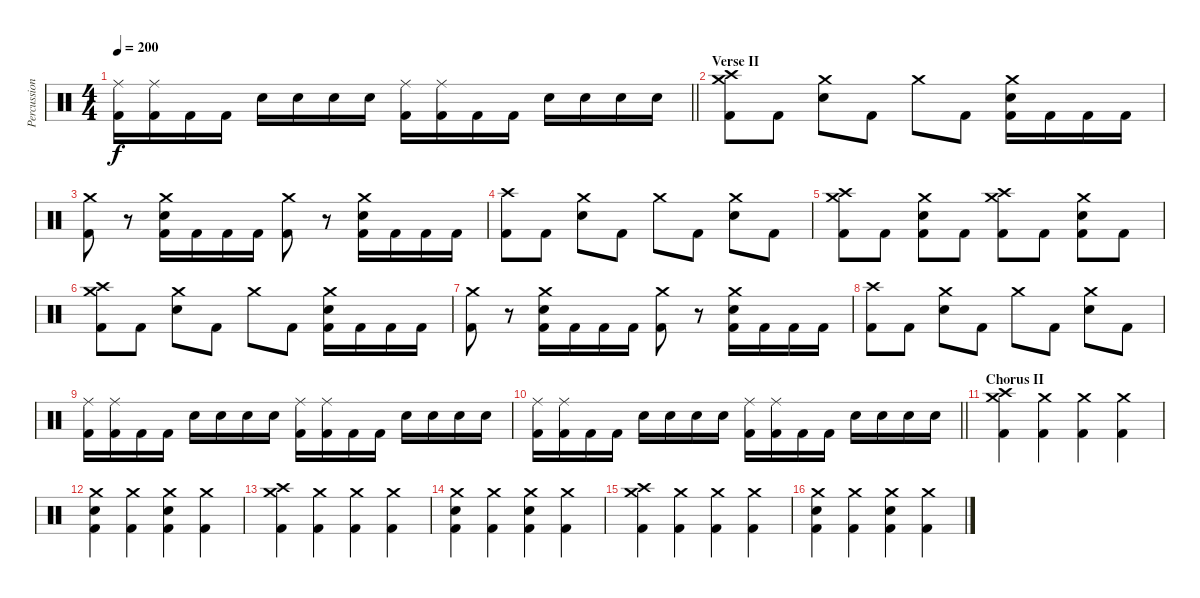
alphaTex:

\track ("Percussion" "Percussion") {instrument percussion}
\staff {score}
\articulation defaults
\ts (4 4)
\tempo 200
\clef neutral
\barLineRight lightlight
\ks c
("Ride (middle)" "Kick (hit) 2").16{dy f} ("Ride (middle)" "Kick (hit) 2").16 "Kick (hit) 2".16 "Kick (hit) 2".16 "Electric Snare (hit)".16 "Electric Snare (hit)".16 "Electric Snare (hit)".16 "Electric Snare (hit)".16 ("Ride (middle)" "Kick (hit) 2").16 ("Ride (middle)" "Kick (hit) 2").16 "Kick (hit) 2".16 "Kick (hit) 2".16 "Electric Snare (hit)".16 "Electric Snare (hit)".16 "Electric Snare (hit)".16 "Electric Snare (hit)".16 |
\section ("" "Verse II")
("Crash medium (hit)" "Crash high (hit)" "Kick (hit) 2").8 "Kick (hit) 2".8 ("Crash medium (hit)" "Electric Snare (hit)").8 "Kick (hit) 2".8 "Crash medium (hit)".8 "Kick (hit) 2".8 ("Crash medium (hit)" "Electric Snare (hit)" "Kick (hit) 2").16 "Kick (hit) 2".16 "Kick (hit) 2".16 "Kick (hit) 2".16 |
("Crash medium (hit)" "Kick (hit) 2").8 r.8 ("Crash medium (hit)" "Electric Snare (hit)" "Kick (hit) 2").16 "Kick (hit) 2".16 "Kick (hit) 2".16 "Kick (hit) 2".16 ("Crash medium (hit)" "Kick (hit) 2").8 r.8 ("Crash medium (hit)" "Electric Snare (hit)" "Kick (hit) 2").16 "Kick (hit) 2".16 "Kick (hit) 2".16 "Kick (hit) 2".16 |
("Crash high (hit)" "Kick (hit) 2").8 "Kick (hit) 2".8 ("Crash medium (hit)" "Electric Snare (hit)").8 "Kick (hit) 2".8 "Crash medium (hit)".8 "Kick (hit) 2".8 ("Crash medium (hit)" "Electric Snare (hit)").8 "Kick (hit) 2".8 |
("Crash medium (hit)" "Crash high (hit)" "Kick (hit) 2").8 "Kick (hit) 2".8 ("Crash medium (hit)" "Electric Snare (hit)" "Kick (hit) 2").8 "Kick (hit) 2".8 ("Crash medium (hit)" "Crash high (hit)" "Kick (hit) 2").8 "Kick (hit) 2".8 ("Crash medium (hit)" "Electric Snare (hit)" "Kick (hit) 2").8 "Kick (hit) 2".8 |
("Crash medium (hit)" "Crash high (hit)" "Kick (hit) 2").8 "Kick (hit) 2".8 ("Crash medium (hit)" "Electric Snare (hit)").8 "Kick (hit) 2".8 "Crash medium (hit)".8 "Kick (hit) 2".8 ("Crash medium (hit)" "Electric Snare (hit)" "Kick (hit) 2").16 "Kick (hit) 2".16 "Kick (hit) 2".16 "Kick (hit) 2".16 |
("Crash medium (hit)" "Kick (hit) 2").8 r.8 ("Crash medium (hit)" "Electric Snare (hit)" "Kick (hit) 2").16 "Kick (hit) 2".16 "Kick (hit) 2".16 "Kick (hit) 2".16 ("Crash medium (hit)" "Kick (hit) 2").8 r.8 ("Crash medium (hit)" "Electric Snare (hit)" "Kick (hit) 2").16 "Kick (hit) 2".16 "Kick (hit) 2".16 "Kick (hit) 2".16 |
("Crash high (hit)" "Kick (hit) 2").8 "Kick (hit) 2".8 ("Crash medium (hit)" "Electric Snare (hit)").8 "Kick (hit) 2".8 "Crash medium (hit)".8 "Kick (hit) 2".8 ("Crash medium (hit)" "Electric Snare (hit)").8 "Kick (hit) 2".8 |
("Ride (middle)" "Kick (hit) 2").16 ("Ride (middle)" "Kick (hit) 2").16 "Kick (hit) 2".16 "Kick (hit) 2".16 "Electric Snare (hit)".16 "Electric Snare (hit)".16 "Electric Snare (hit)".16 "Electric Snare (hit)".16 ("Ride (middle)" "Kick (hit) 2").16 ("Ride (middle)" "Kick (hit) 2").16 "Kick (hit) 2".16 "Kick (hit) 2".16 "Electric Snare (hit)".16 "Electric Snare (hit)".16 "Electric Snare (hit)".16 "Electric Snare (hit)".16 |
\barLineRight lightlight
("Ride (middle)" "Kick (hit) 2").16 ("Ride (middle)" "Kick (hit) 2").16 "Kick (hit) 2".16 "Kick (hit) 2".16 "Electric Snare (hit)".16 "Electric Snare (hit)".16 "Electric Snare (hit)".16 "Electric Snare (hit)".16 ("Ride (middle)" "Kick (hit) 2").16 ("Ride (middle)" "Kick (hit) 2").16 "Kick (hit) 2".16 "Kick (hit) 2".16 "Electric Snare (hit)".16 "Electric Snare (hit)".16 "Electric Snare (hit)".16 "Electric Snare (hit)".16 |
\section ("" "Chorus II")
("Crash medium (hit)" "Crash high (hit)" "Kick (hit) 2").4 ("Crash medium (hit)" "Kick (hit) 2").4 ("Crash medium (hit)" "Kick (hit) 2").4 ("Crash medium (hit)" "Kick (hit) 2").4 |
("Crash medium (hit)" "Electric Snare (hit)" "Kick (hit) 2").4 ("Crash medium (hit)" "Kick (hit) 2").4 ("Crash medium (hit)" "Electric Snare (hit)" "Kick (hit) 2").4 ("Crash medium (hit)" "Kick (hit) 2").4 |
("Crash medium (hit)" "Crash high (hit)" "Kick (hit) 2").4 ("Crash medium (hit)" "Kick (hit) 2").4 ("Crash medium (hit)" "Kick (hit) 2").4 ("Crash medium (hit)" "Kick (hit) 2").4 |
("Crash medium (hit)" "Electric Snare (hit)" "Kick (hit) 2").4 ("Crash medium (hit)" "Kick (hit) 2").4 ("Crash medium (hit)" "Electric Snare (hit)" "Kick (hit) 2").4 ("Crash medium (hit)" "Kick (hit) 2").4 |
("Crash medium (hit)" "Crash high (hit)" "Kick (hit) 2").4 ("Crash medium (hit)" "Kick (hit) 2").4 ("Crash medium (hit)" "Kick (hit) 2").4 ("Crash medium (hit)" "Kick (hit) 2").4 |
("Crash medium (hit)" "Electric Snare (hit)" "Kick (hit) 2").4 ("Crash medium (hit)" "Kick (hit) 2").4 ("Crash medium (hit)" "Electric Snare (hit)" "Kick (hit) 2").4 ("Crash medium (hit)" "Kick (hit) 2").4
